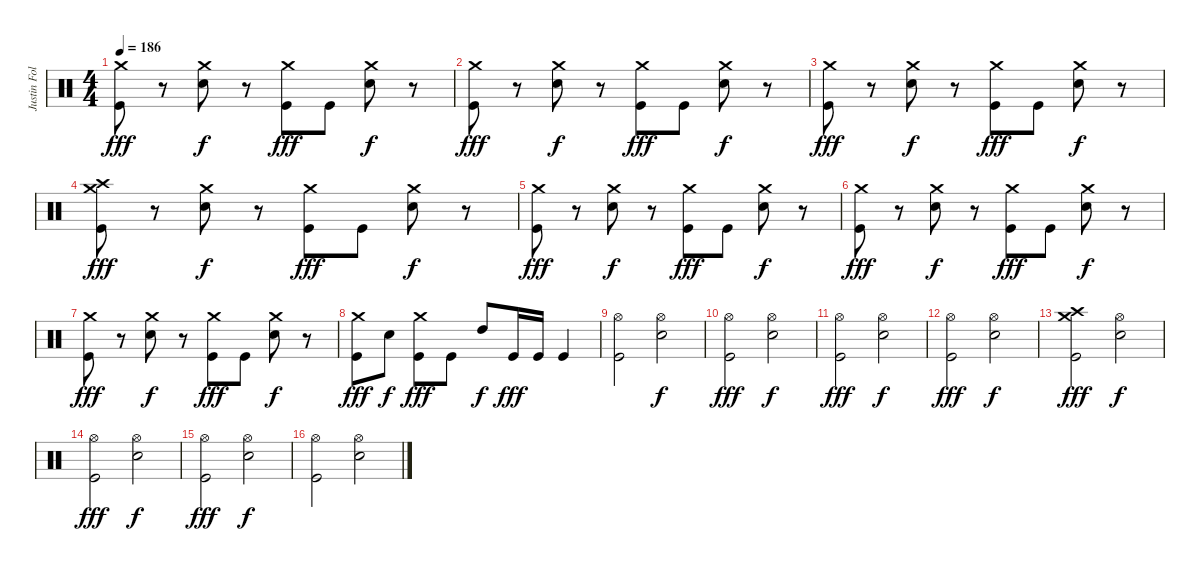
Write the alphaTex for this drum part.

\track ("Justin Foley" "Justin Fol") {instrument percussion}
\staff {score}
\articulation defaults
\ts (4 4)
\tempo 186
\clef neutral
\ks c
("Crash medium (hit)" "Kick (hit)").8{dy fff} r.8 ("Crash medium (hit)" "Electric Snare (hit)").8{dy f} r.8 ("Crash medium (hit)" "Kick (hit)").8{dy fff} "Kick (hit)".8 ("Crash medium (hit)" "Electric Snare (hit)").8{dy f} r.8 |
("Crash medium (hit)" "Kick (hit)").8{dy fff} r.8 ("Crash medium (hit)" "Electric Snare (hit)").8{dy f} r.8 ("Crash medium (hit)" "Kick (hit)").8{dy fff} "Kick (hit)".8 ("Crash medium (hit)" "Electric Snare (hit)").8{dy f} r.8 |
("Crash medium (hit)" "Kick (hit)").8{dy fff} r.8 ("Crash medium (hit)" "Electric Snare (hit)").8{dy f} r.8 ("Crash medium (hit)" "Kick (hit)").8{dy fff} "Kick (hit)".8 ("Crash medium (hit)" "Electric Snare (hit)").8{dy f} r.8 |
("Crash medium (hit)" "Crash high (hit)" "Kick (hit)").8{dy fff} r.8 ("Crash medium (hit)" "Electric Snare (hit)").8{dy f} r.8 ("Crash medium (hit)" "Kick (hit)").8{dy fff} "Kick (hit)".8 ("Crash medium (hit)" "Electric Snare (hit)").8{dy f} r.8 |
("Crash medium (hit)" "Kick (hit)").8{dy fff} r.8 ("Crash medium (hit)" "Electric Snare (hit)").8{dy f} r.8 ("Crash medium (hit)" "Kick (hit)").8{dy fff} "Kick (hit)".8 ("Crash medium (hit)" "Electric Snare (hit)").8{dy f} r.8 |
("Crash medium (hit)" "Kick (hit)").8{dy fff} r.8 ("Crash medium (hit)" "Electric Snare (hit)").8{dy f} r.8 ("Crash medium (hit)" "Kick (hit)").8{dy fff} "Kick (hit)".8 ("Crash medium (hit)" "Electric Snare (hit)").8{dy f} r.8 |
("Crash medium (hit)" "Kick (hit)").8{dy fff} r.8 ("Crash medium (hit)" "Electric Snare (hit)").8{dy f} r.8 ("Crash medium (hit)" "Kick (hit)").8{dy fff} "Kick (hit)".8 ("Crash medium (hit)" "Electric Snare (hit)").8{dy f} r.8 |
("Crash medium (hit)" "Kick (hit)").8{dy fff} "Electric Snare (hit)".8{dy f} ("Crash medium (hit)" "Kick (hit)").8{dy fff} "Kick (hit)".8 "High Tom (hit)".8{dy f} "Kick (hit)".16{dy fff} "Kick (hit)".16 "Kick (hit)".4 |
("Hi-Hat (open)" "Kick (hit)").2 ("Hi-Hat (open)" "Electric Snare (hit)").2{dy f} |
("Hi-Hat (open)" "Kick (hit)").2{dy fff} ("Hi-Hat (open)" "Electric Snare (hit)").2{dy f} |
("Hi-Hat (open)" "Kick (hit)").2{dy fff} ("Hi-Hat (open)" "Electric Snare (hit)").2{dy f} |
("Hi-Hat (open)" "Kick (hit)").2{dy fff} ("Hi-Hat (open)" "Electric Snare (hit)").2{dy f} |
("Crash medium (hit)" "Crash high (hit)" "Kick (hit)").2{dy fff} ("Hi-Hat (open)" "Electric Snare (hit)").2{dy f} |
("Hi-Hat (open)" "Kick (hit)").2{dy fff} ("Hi-Hat (open)" "Electric Snare (hit)").2{dy f} |
("Hi-Hat (open)" "Kick (hit)").2{dy fff} ("Hi-Hat (open)" "Electric Snare (hit)").2{dy f} |
("Hi-Hat (open)" "Kick (hit)").2 ("Hi-Hat (open)" "Electric Snare (hit)").2
